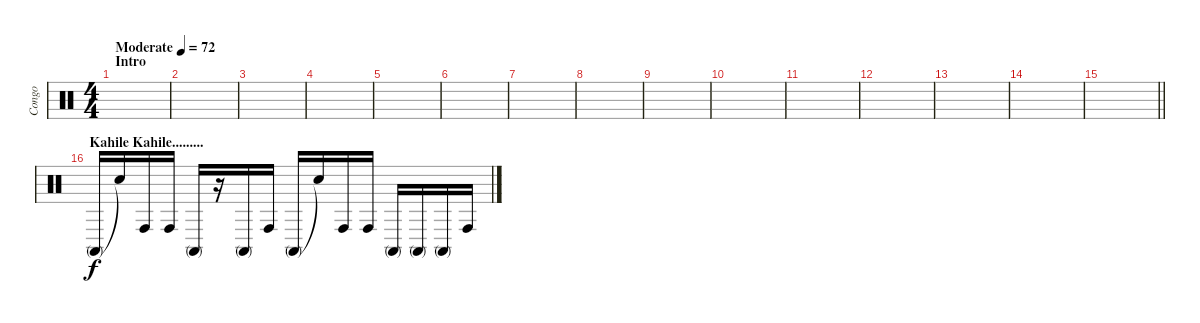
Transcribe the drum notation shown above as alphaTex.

\track ("Congo" "Congo") {instrument percussion}
\staff {score}
\articulation defaults
\ts (4 4)
\section ("" "Intro")
\tempo (72 "Moderate")
\clef neutral
\ks c
|
|
|
|
|
|
|
|
|
|
|
|
|
|
\barLineRight lightlight
|
\section ("" "Kahile Kahile.........")
"Conga high (mute)".16 "Snare (hit)"{t}.16 "Conga high (hit)".16 "Conga high (hit)".16 "Conga high (mute)".16 r.16 "Conga high (mute)".16 "Conga high (hit)".16 "Conga high (mute)".16 "Snare (hit)"{t}.16 "Conga high (hit)".16 "Conga high (hit)".16 "Conga high (mute)".16 "Conga high (mute)".16 "Conga high (mute)".16 "Conga high (hit)".16
